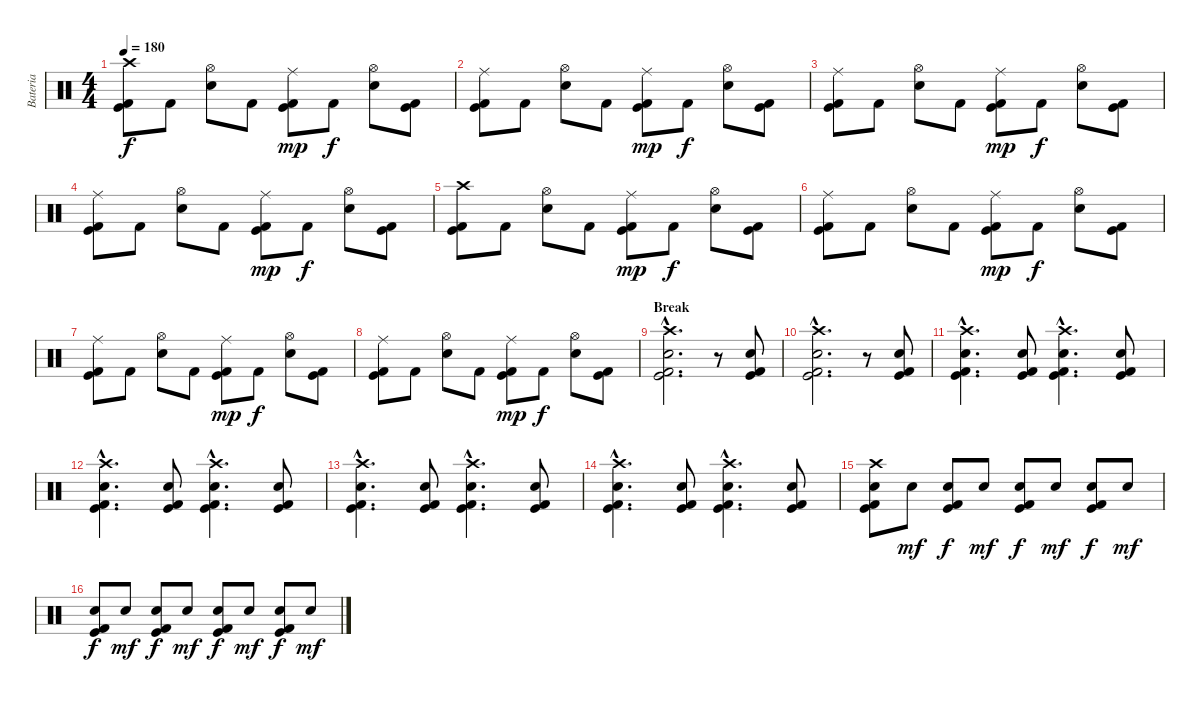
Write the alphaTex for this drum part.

\track ("Bateria" "Bateria") {instrument percussion}
\staff {score}
\articulation defaults
\ts (4 4)
\tempo 180
\clef neutral
\ks c
("Crash high (hit)" "Kick (hit)" "Kick (hit) 2").8{dy f} "Kick (hit) 2".8 ("Hi-Hat (open)" "Snare (hit) 2").8 "Kick (hit) 2".8 ("Ride (middle)" "Kick (hit)" "Kick (hit) 2").8{dy mp} "Kick (hit) 2".8{dy f} ("Hi-Hat (open)" "Snare (hit) 2").8 ("Kick (hit)" "Kick (hit) 2").8 |
("Ride (middle)" "Kick (hit)" "Kick (hit) 2").8 "Kick (hit) 2".8 ("Hi-Hat (open)" "Snare (hit) 2").8 "Kick (hit) 2".8 ("Ride (middle)" "Kick (hit)" "Kick (hit) 2").8{dy mp} "Kick (hit) 2".8{dy f} ("Hi-Hat (open)" "Snare (hit) 2").8 ("Kick (hit)" "Kick (hit) 2").8 |
("Ride (middle)" "Kick (hit)" "Kick (hit) 2").8 "Kick (hit) 2".8 ("Hi-Hat (open)" "Snare (hit) 2").8 "Kick (hit) 2".8 ("Ride (middle)" "Kick (hit)" "Kick (hit) 2").8{dy mp} "Kick (hit) 2".8{dy f} ("Hi-Hat (open)" "Snare (hit) 2").8 ("Kick (hit)" "Kick (hit) 2").8 |
("Ride (middle)" "Kick (hit)" "Kick (hit) 2").8 "Kick (hit) 2".8 ("Hi-Hat (open)" "Snare (hit) 2").8 "Kick (hit) 2".8 ("Ride (middle)" "Kick (hit)" "Kick (hit) 2").8{dy mp} "Kick (hit) 2".8{dy f} ("Hi-Hat (open)" "Snare (hit) 2").8 ("Kick (hit)" "Kick (hit) 2").8 |
("Crash high (hit)" "Kick (hit)" "Kick (hit) 2").8 "Kick (hit) 2".8 ("Hi-Hat (open)" "Snare (hit) 2").8 "Kick (hit) 2".8 ("Ride (middle)" "Kick (hit)" "Kick (hit) 2").8{dy mp} "Kick (hit) 2".8{dy f} ("Hi-Hat (open)" "Snare (hit) 2").8 ("Kick (hit)" "Kick (hit) 2").8 |
("Ride (middle)" "Kick (hit)" "Kick (hit) 2").8 "Kick (hit) 2".8 ("Hi-Hat (open)" "Snare (hit) 2").8 "Kick (hit) 2".8 ("Ride (middle)" "Kick (hit)" "Kick (hit) 2").8{dy mp} "Kick (hit) 2".8{dy f} ("Hi-Hat (open)" "Snare (hit) 2").8 ("Kick (hit)" "Kick (hit) 2").8 |
("Ride (middle)" "Kick (hit)" "Kick (hit) 2").8 "Kick (hit) 2".8 ("Hi-Hat (open)" "Snare (hit) 2").8 "Kick (hit) 2".8 ("Ride (middle)" "Kick (hit)" "Kick (hit) 2").8{dy mp} "Kick (hit) 2".8{dy f} ("Hi-Hat (open)" "Snare (hit) 2").8 ("Kick (hit)" "Kick (hit) 2").8 |
("Ride (middle)" "Kick (hit)" "Kick (hit) 2").8 "Kick (hit) 2".8 ("Hi-Hat (open)" "Snare (hit) 2").8 "Kick (hit) 2".8 ("Ride (middle)" "Kick (hit)" "Kick (hit) 2").8{dy mp} "Kick (hit) 2".8{dy f} ("Hi-Hat (open)" "Snare (hit) 2").8 ("Kick (hit)" "Kick (hit) 2").8 |
\section ("" "Break")
("Crash high (hit)"{hac} "Snare (hit) 2"{hac} "Kick (hit)"{hac} "Kick (hit) 2"{hac}).2{d} r.8 ("Snare (hit) 2" "Kick (hit)" "Kick (hit) 2").8 |
("Crash high (hit)"{hac} "Snare (hit) 2"{hac} "Kick (hit)"{hac} "Kick (hit) 2"{hac}).2{d} r.8 ("Snare (hit) 2" "Kick (hit)" "Kick (hit) 2").8 |
("Crash high (hit)"{hac} "Snare (hit) 2"{hac} "Kick (hit)"{hac} "Kick (hit) 2"{hac}).4{d} ("Snare (hit) 2" "Kick (hit)" "Kick (hit) 2").8 ("Crash high (hit)"{hac} "Snare (hit) 2"{hac} "Kick (hit)"{hac} "Kick (hit) 2"{hac}).4{d} ("Snare (hit) 2" "Kick (hit)" "Kick (hit) 2").8 |
("Crash high (hit)"{hac} "Snare (hit) 2"{hac} "Kick (hit)"{hac} "Kick (hit) 2"{hac}).4{d} ("Snare (hit) 2" "Kick (hit)" "Kick (hit) 2").8 ("Crash high (hit)"{hac} "Snare (hit) 2"{hac} "Kick (hit)"{hac} "Kick (hit) 2"{hac}).4{d} ("Snare (hit) 2" "Kick (hit)" "Kick (hit) 2").8 |
("Crash high (hit)"{hac} "Snare (hit) 2"{hac} "Kick (hit)"{hac} "Kick (hit) 2"{hac}).4{d} ("Snare (hit) 2" "Kick (hit)" "Kick (hit) 2").8 ("Crash high (hit)"{hac} "Snare (hit) 2"{hac} "Kick (hit)"{hac} "Kick (hit) 2"{hac}).4{d} ("Snare (hit) 2" "Kick (hit)" "Kick (hit) 2").8 |
("Crash high (hit)"{hac} "Snare (hit) 2"{hac} "Kick (hit)"{hac} "Kick (hit) 2"{hac}).4{d} ("Snare (hit) 2" "Kick (hit)" "Kick (hit) 2").8 ("Crash high (hit)"{hac} "Snare (hit) 2"{hac} "Kick (hit)"{hac} "Kick (hit) 2"{hac}).4{d} ("Snare (hit) 2" "Kick (hit)" "Kick (hit) 2").8 |
("Crash high (hit)" "Snare (hit) 2" "Kick (hit)" "Kick (hit) 2").8 "Snare (hit) 2".8{dy mf} ("Snare (hit) 2" "Kick (hit)" "Kick (hit) 2").8{dy f} "Snare (hit) 2".8{dy mf} ("Snare (hit) 2" "Kick (hit)" "Kick (hit) 2").8{dy f} "Snare (hit) 2".8{dy mf} ("Snare (hit) 2" "Kick (hit)" "Kick (hit) 2").8{dy f} "Snare (hit) 2".8{dy mf} |
("Snare (hit) 2" "Kick (hit)" "Kick (hit) 2").8{dy f} "Snare (hit) 2".8{dy mf} ("Snare (hit) 2" "Kick (hit)" "Kick (hit) 2").8{dy f} "Snare (hit) 2".8{dy mf} ("Snare (hit) 2" "Kick (hit)" "Kick (hit) 2").8{dy f} "Snare (hit) 2".8{dy mf} ("Snare (hit) 2" "Kick (hit)" "Kick (hit) 2").8{dy f} "Snare (hit) 2".8{dy mf}
